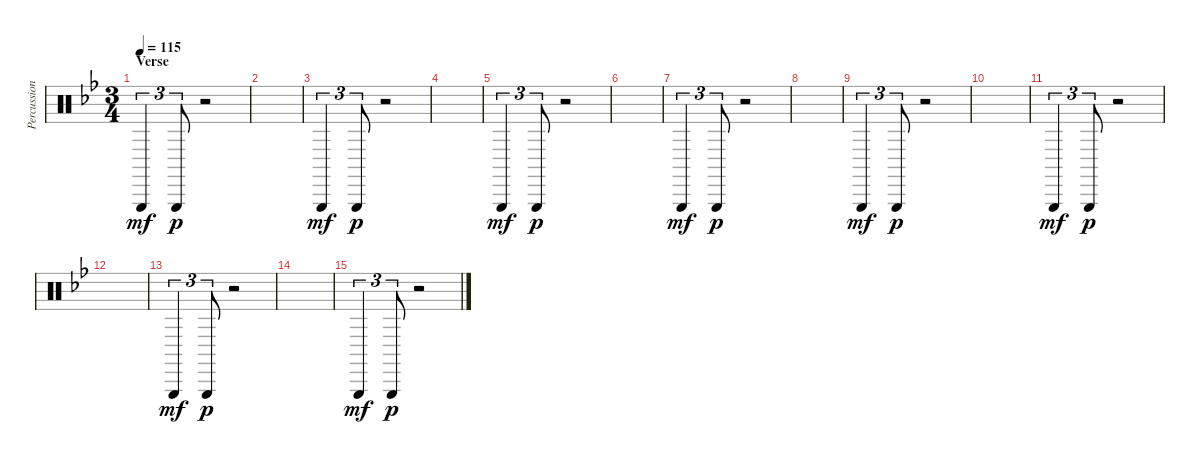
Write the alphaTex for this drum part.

\track ("Percussion" "Percussion") {instrument percussion}
\staff {score}
\articulation defaults
\ts (3 4)
\section ("" "Verse")
\tempo 115
\clef neutral
\ks gminor "Triangle (hit)".4{tu (3 2) dy mf} "Triangle (hit)".8{tu (3 2) dy p}
r.2 |
|
"Triangle (hit)".4{tu (3 2) dy mf} "Triangle (hit)".8{tu (3 2) dy p} r.2 |
|
"Triangle (hit)".4{tu (3 2) dy mf} "Triangle (hit)".8{tu (3 2) dy p} r.2 |
|
"Triangle (hit)".4{tu (3 2) dy mf} "Triangle (hit)".8{tu (3 2) dy p} r.2 |
|
"Triangle (hit)".4{tu (3 2) dy mf} "Triangle (hit)".8{tu (3 2) dy p} r.2 |
|
"Triangle (hit)".4{tu (3 2) dy mf} "Triangle (hit)".8{tu (3 2) dy p} r.2 |
|
"Triangle (hit)".4{tu (3 2) dy mf} "Triangle (hit)".8{tu (3 2) dy p} r.2 |
|
"Triangle (hit)".4{tu (3 2) dy mf} "Triangle (hit)".8{tu (3 2) dy p} r.2
